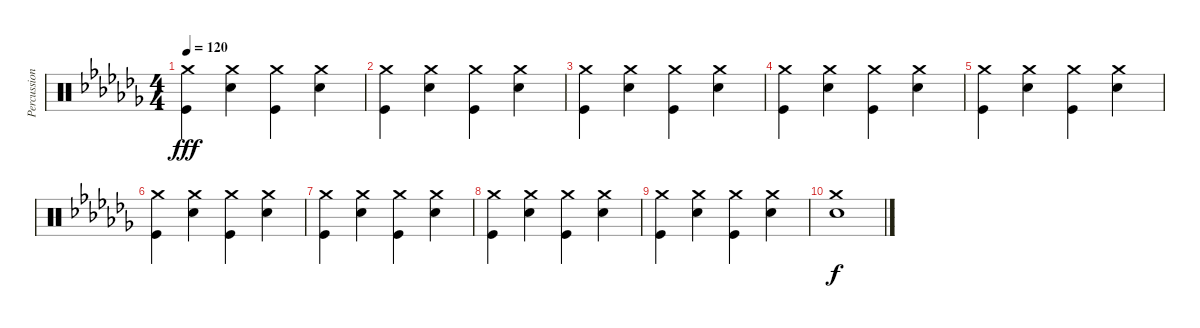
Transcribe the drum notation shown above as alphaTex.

\track ("Percussion" "Percussion") {instrument percussion}
\staff {score}
\articulation defaults
\ts (4 4)
\tempo 120
\clef neutral
\ks abminor
("Crash medium (hit)" "Kick (hit)").4{dy fff} ("Crash medium (hit)" "Snare (hit) 2").4 ("Crash medium (hit)" "Kick (hit)").4 ("Crash medium (hit)" "Snare (hit) 2").4 |
("Crash medium (hit)" "Kick (hit)").4 ("Crash medium (hit)" "Snare (hit) 2").4 ("Crash medium (hit)" "Kick (hit)").4 ("Crash medium (hit)" "Snare (hit) 2").4 |
("Crash medium (hit)" "Kick (hit)").4 ("Crash medium (hit)" "Snare (hit) 2").4 ("Crash medium (hit)" "Kick (hit)").4 ("Crash medium (hit)" "Snare (hit) 2").4 |
("Crash medium (hit)" "Kick (hit)").4 ("Crash medium (hit)" "Snare (hit) 2").4 ("Crash medium (hit)" "Kick (hit)").4 ("Crash medium (hit)" "Snare (hit) 2").4 |
("Crash medium (hit)" "Kick (hit)").4 ("Crash medium (hit)" "Snare (hit) 2").4 ("Crash medium (hit)" "Kick (hit)").4 ("Crash medium (hit)" "Snare (hit) 2").4 |
("Crash medium (hit)" "Kick (hit)").4 ("Crash medium (hit)" "Snare (hit) 2").4 ("Crash medium (hit)" "Kick (hit)").4 ("Crash medium (hit)" "Snare (hit) 2").4 |
("Crash medium (hit)" "Kick (hit)").4 ("Crash medium (hit)" "Snare (hit) 2").4 ("Crash medium (hit)" "Kick (hit)").4 ("Crash medium (hit)" "Snare (hit) 2").4 |
("Crash medium (hit)" "Kick (hit)").4 ("Crash medium (hit)" "Snare (hit) 2").4 ("Crash medium (hit)" "Kick (hit)").4 ("Crash medium (hit)" "Snare (hit) 2").4 |
("Crash medium (hit)" "Kick (hit)").4 ("Crash medium (hit)" "Snare (hit) 2").4 ("Crash medium (hit)" "Kick (hit)").4 ("Crash medium (hit)" "Snare (hit) 2").4 |
("Crash medium (hit)" "Snare (hit) 2").1{dy f}
